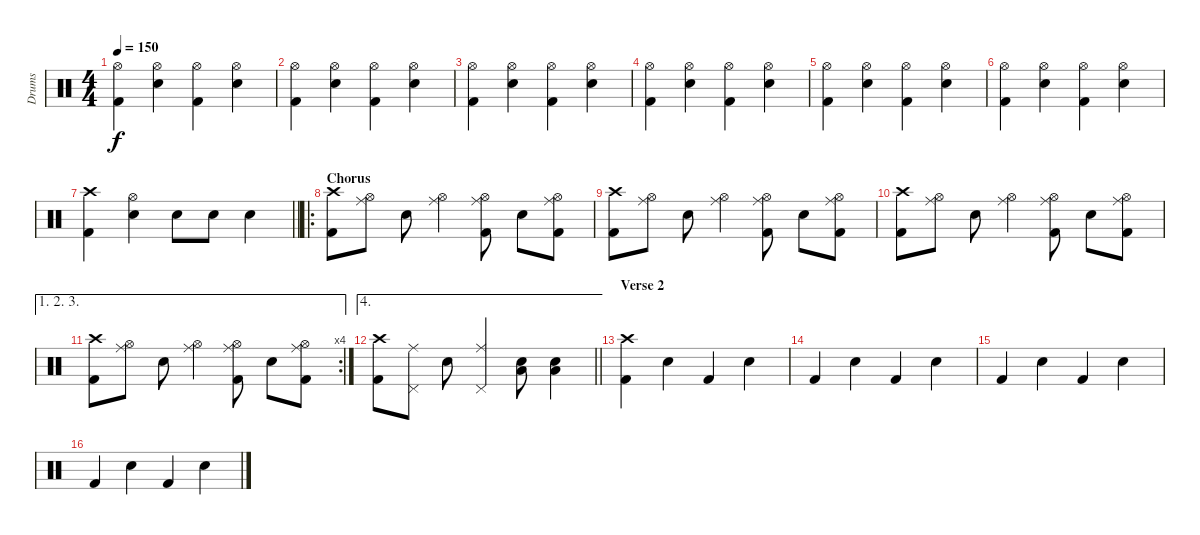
\track ("Drums" "Drums") {instrument percussion}
\staff {score}
\articulation defaults
\ts (4 4)
\tempo 150
\clef neutral
\ks c
("Hi-Hat (open)" "Kick (hit) 2").4{dy f} ("Hi-Hat (open)" "Electric Snare (hit)").4 ("Hi-Hat (open)" "Kick (hit) 2").4 ("Hi-Hat (open)" "Electric Snare (hit)").4 |
("Hi-Hat (open)" "Kick (hit) 2").4 ("Hi-Hat (open)" "Electric Snare (hit)").4 ("Hi-Hat (open)" "Kick (hit) 2").4 ("Hi-Hat (open)" "Electric Snare (hit)").4 |
("Hi-Hat (open)" "Kick (hit) 2").4 ("Hi-Hat (open)" "Electric Snare (hit)").4 ("Hi-Hat (open)" "Kick (hit) 2").4 ("Hi-Hat (open)" "Electric Snare (hit)").4 |
("Hi-Hat (open)" "Kick (hit) 2").4 ("Hi-Hat (open)" "Electric Snare (hit)").4 ("Hi-Hat (open)" "Kick (hit) 2").4 ("Hi-Hat (open)" "Electric Snare (hit)").4 |
("Hi-Hat (open)" "Kick (hit) 2").4 ("Hi-Hat (open)" "Electric Snare (hit)").4 ("Hi-Hat (open)" "Kick (hit) 2").4 ("Hi-Hat (open)" "Electric Snare (hit)").4 |
("Hi-Hat (open)" "Kick (hit) 2").4 ("Hi-Hat (open)" "Electric Snare (hit)").4 ("Hi-Hat (open)" "Kick (hit) 2").4 ("Hi-Hat (open)" "Electric Snare (hit)").4 |
\barLineRight lightlight
("Crash high (hit)" "Kick (hit) 2").4 ("Hi-Hat (open)" "Electric Snare (hit)").4 "Electric Snare (hit)".8 "Electric Snare (hit)".8 "Electric Snare (hit)".4 |
\ro
\section ("" "Chorus")
("Crash high (hit)" "Kick (hit) 2").8 ("Ride (middle)" "Hi-Hat (open)").8 "Electric Snare (hit)".8 ("Ride (middle)" "Hi-Hat (open)").4 ("Ride (middle)" "Hi-Hat (open)" "Kick (hit) 2").8 "Electric Snare (hit)".8 ("Ride (middle)" "Hi-Hat (open)" "Kick (hit) 2").8 |
("Crash high (hit)" "Kick (hit) 2").8 ("Ride (middle)" "Hi-Hat (open)").8 "Electric Snare (hit)".8 ("Ride (middle)" "Hi-Hat (open)").4 ("Ride (middle)" "Hi-Hat (open)" "Kick (hit) 2").8 "Electric Snare (hit)".8 ("Ride (middle)" "Hi-Hat (open)" "Kick (hit) 2").8 |
("Crash high (hit)" "Kick (hit) 2").8 ("Ride (middle)" "Hi-Hat (open)").8 "Electric Snare (hit)".8 ("Ride (middle)" "Hi-Hat (open)").4 ("Ride (middle)" "Hi-Hat (open)" "Kick (hit) 2").8 "Electric Snare (hit)".8 ("Ride (middle)" "Hi-Hat (open)" "Kick (hit) 2").8 |
\ae (1 2 3)
\rc 4
("Crash high (hit)" "Kick (hit) 2").8 ("Ride (middle)" "Hi-Hat (open)").8 "Electric Snare (hit)".8 ("Ride (middle)" "Hi-Hat (open)").4 ("Ride (middle)" "Hi-Hat (open)" "Kick (hit) 2").8 "Electric Snare (hit)".8 ("Ride (middle)" "Hi-Hat (open)" "Kick (hit) 2").8 |
\ae 4
\barLineRight lightlight
("Crash high (hit)" "Kick (hit) 2").8 ("Ride (middle)" "Pedal Hi-Hat (hit)").8 "Electric Snare (hit)".8 ("Ride (middle)" "Pedal Hi-Hat (hit)").4 ("Electric Snare (hit)" "Low Floor Tom (hit)").8 ("Electric Snare (hit)" "Low Floor Tom (hit)").4 |
\section ("" "Verse 2")
("Crash high (hit)" "Kick (hit) 2").4 "Electric Snare (hit)".4 "Kick (hit) 2".4 "Electric Snare (hit)".4 |
"Kick (hit) 2".4 "Electric Snare (hit)".4 "Kick (hit) 2".4 "Electric Snare (hit)".4 |
"Kick (hit) 2".4 "Electric Snare (hit)".4 "Kick (hit) 2".4 "Electric Snare (hit)".4 |
"Kick (hit) 2".4 "Electric Snare (hit)".4 "Kick (hit) 2".4 "Electric Snare (hit)".4
